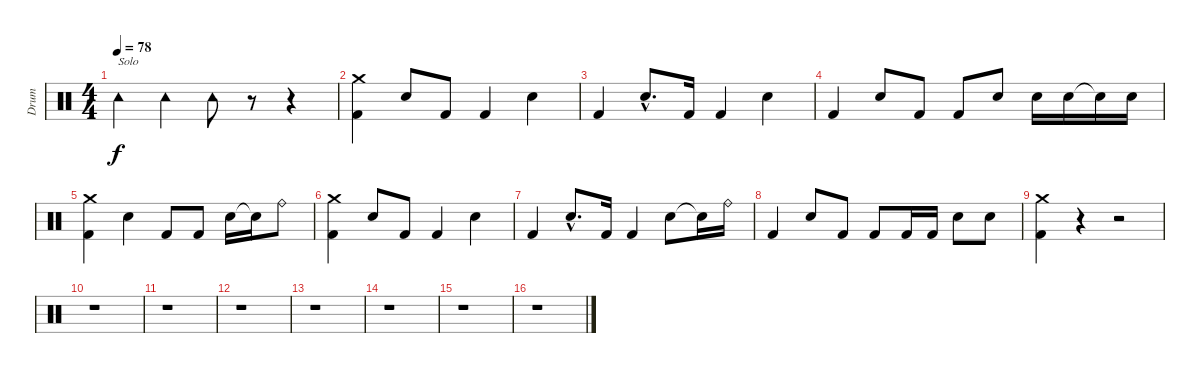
\track ("Drum" "Drum") {instrument percussion}
\staff {score}
\articulation defaults
\ts (4 4)
\tempo 78
\clef neutral
\ks c "Tambourine (hit)".4{txt "Solo" dy f} "Tambourine (hit)".4 "Tambourine (hit)".8
r.8 r.4 |
("Crash medium (hit)" "Kick (hit) 2").4 "Electric Snare (hit)".8 "Kick (hit) 2".8 "Kick (hit) 2".4 "Electric Snare (hit)".4 |
"Kick (hit) 2".4 "Electric Snare (hit)"{hac}.8{d} "Kick (hit) 2".16 "Kick (hit) 2".4 "Electric Snare (hit)".4 |
"Kick (hit) 2".4 "Electric Snare (hit)".8 "Kick (hit) 2".8 "Kick (hit) 2".8 "Electric Snare (hit)".8 "Electric Snare (hit)".16 "Electric Snare (hit)".16 "Snare (hit)"{t}.16 "Electric Snare (hit)".16 |
("Crash medium (hit)" "Kick (hit) 2").4 "Electric Snare (hit)".4 "Kick (hit) 2".8 "Kick (hit) 2".8 "Electric Snare (hit)".16 "Snare (hit)"{t}.16 "Ride (bell)".8 |
("Crash medium (hit)" "Kick (hit) 2").4 "Electric Snare (hit)".8 "Kick (hit) 2".8 "Kick (hit) 2".4 "Electric Snare (hit)".4 |
"Kick (hit) 2".4 "Electric Snare (hit)"{hac}.8{d} "Kick (hit) 2".16 "Kick (hit) 2".4 "Electric Snare (hit)".8 "Snare (hit)"{t}.16 "Ride (bell)".16 |
"Kick (hit) 2".4 "Electric Snare (hit)".8 "Kick (hit) 2".8 "Kick (hit) 2".8 "Kick (hit) 2".16 "Kick (hit) 2".16 "Electric Snare (hit)".8 "Electric Snare (hit)".8 |
("Crash medium (hit)" "Kick (hit) 2").4 r.4 r.2 |
r.1 |
r.1 |
r.1 |
r.1 |
r.1 |
r.1 |
r.1
